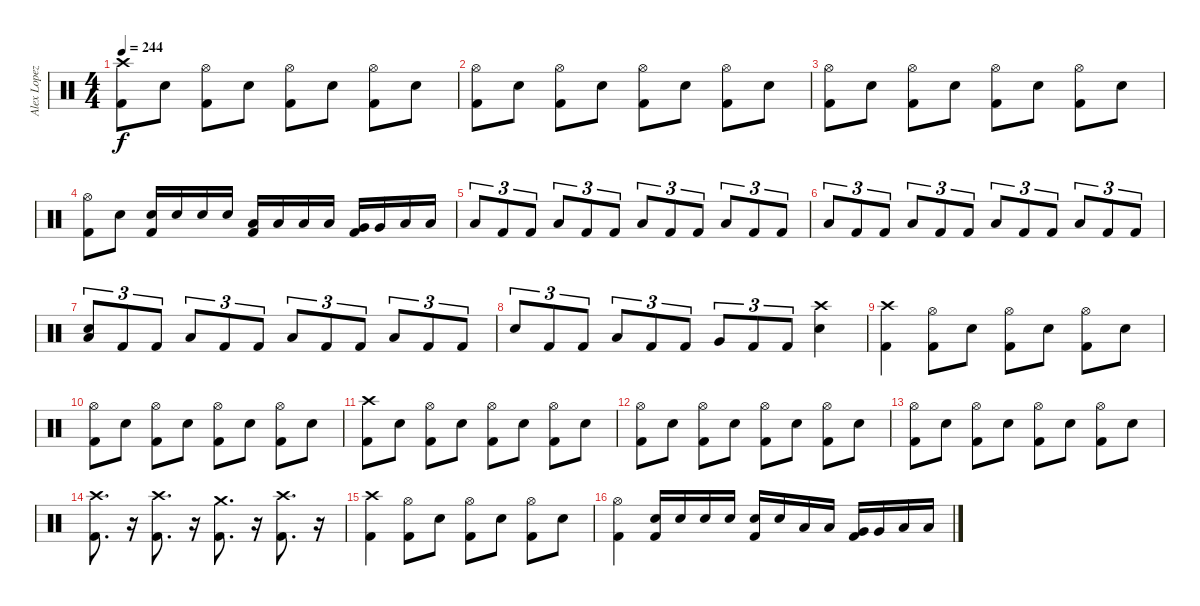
\track ("Alex Lopez" "Alex Lopez") {instrument percussion}
\staff {score}
\articulation defaults
\ts (4 4)
\tempo 244
\clef neutral
\ks c
("Crash high (hit)" "Kick (hit) 2").8{dy f} "Snare (hit) 2".8 ("Hi-Hat (open)" "Kick (hit) 2").8 "Snare (hit) 2".8 ("Hi-Hat (open)" "Kick (hit) 2").8 "Snare (hit) 2".8 ("Hi-Hat (open)" "Kick (hit) 2").8 "Snare (hit) 2".8 |
("Hi-Hat (open)" "Kick (hit) 2").8 "Snare (hit) 2".8 ("Hi-Hat (open)" "Kick (hit) 2").8 "Snare (hit) 2".8 ("Hi-Hat (open)" "Kick (hit) 2").8 "Snare (hit) 2".8 ("Hi-Hat (open)" "Kick (hit) 2").8 "Snare (hit) 2".8 |
("Hi-Hat (open)" "Kick (hit) 2").8 "Snare (hit) 2".8 ("Hi-Hat (open)" "Kick (hit) 2").8 "Snare (hit) 2".8 ("Hi-Hat (open)" "Kick (hit) 2").8 "Snare (hit) 2".8 ("Hi-Hat (open)" "Kick (hit) 2").8 "Snare (hit) 2".8 |
("Hi-Hat (open)" "Kick (hit) 2").8 "Snare (hit) 2".8 ("Snare (hit) 2" "Kick (hit) 2").16 "Snare (hit) 2".16 "Snare (hit) 2".16 "Snare (hit) 2".16 ("Low Tom (hit)" "Kick (hit) 2").16 "Low Tom (hit)".16 "Low Tom (hit)".16 "Low Tom (hit)".16 ("Very Low Tom (hit)" "Kick (hit) 2").16 "Very Low Tom (hit)".16 "Low Floor Tom (hit)".16 "Low Floor Tom (hit)".16 |
"Low Floor Tom (hit)".8{tu (3 2)} "Kick (hit) 2".8{tu (3 2)} "Kick (hit) 2".8{tu (3 2)} "Low Floor Tom (hit)".8{tu (3 2)} "Kick (hit) 2".8{tu (3 2)} "Kick (hit) 2".8{tu (3 2)} "Low Floor Tom (hit)".8{tu (3 2)} "Kick (hit) 2".8{tu (3 2)} "Kick (hit) 2".8{tu (3 2)} "Low Floor Tom (hit)".8{tu (3 2)} "Kick (hit) 2".8{tu (3 2)} "Kick (hit) 2".8{tu (3 2)} |
"Low Floor Tom (hit)".8{tu (3 2)} "Kick (hit) 2".8{tu (3 2)} "Kick (hit) 2".8{tu (3 2)} "Low Floor Tom (hit)".8{tu (3 2)} "Kick (hit) 2".8{tu (3 2)} "Kick (hit) 2".8{tu (3 2)} "Low Floor Tom (hit)".8{tu (3 2)} "Kick (hit) 2".8{tu (3 2)} "Kick (hit) 2".8{tu (3 2)} "Low Floor Tom (hit)".8{tu (3 2)} "Kick (hit) 2".8{tu (3 2)} "Kick (hit) 2".8{tu (3 2)} |
("Snare (hit) 2" "Low Floor Tom (hit)").8{tu (3 2)} "Kick (hit) 2".8{tu (3 2)} "Kick (hit) 2".8{tu (3 2)} "Low Floor Tom (hit)".8{tu (3 2)} "Kick (hit) 2".8{tu (3 2)} "Kick (hit) 2".8{tu (3 2)} "Low Floor Tom (hit)".8{tu (3 2)} "Kick (hit) 2".8{tu (3 2)} "Kick (hit) 2".8{tu (3 2)} "Low Floor Tom (hit)".8{tu (3 2)} "Kick (hit) 2".8{tu (3 2)} "Kick (hit) 2".8{tu (3 2)} |
"Snare (hit) 2".8{tu (3 2)} "Kick (hit) 2".8{tu (3 2)} "Kick (hit) 2".8{tu (3 2)} "Low Tom (hit)".8{tu (3 2)} "Kick (hit) 2".8{tu (3 2)} "Kick (hit) 2".8{tu (3 2)} "Very Low Tom (hit)".8{tu (3 2)} "Kick (hit) 2".8{tu (3 2)} "Kick (hit) 2".8{tu (3 2)} ("Crash high (hit)" "Snare (hit) 2").4 |
("Crash high (hit)" "Kick (hit) 2").4 ("Hi-Hat (open)" "Kick (hit) 2").8 "Snare (hit) 2".8 ("Hi-Hat (open)" "Kick (hit) 2").8 "Snare (hit) 2".8 ("Hi-Hat (open)" "Kick (hit) 2").8 "Snare (hit) 2".8 |
("Hi-Hat (open)" "Kick (hit) 2").8 "Snare (hit) 2".8 ("Hi-Hat (open)" "Kick (hit) 2").8 "Snare (hit) 2".8 ("Hi-Hat (open)" "Kick (hit) 2").8 "Snare (hit) 2".8 ("Hi-Hat (open)" "Kick (hit) 2").8 "Snare (hit) 2".8 |
("Crash high (hit)" "Kick (hit) 2").8 "Snare (hit) 2".8 ("Hi-Hat (open)" "Kick (hit) 2").8 "Snare (hit) 2".8 ("Hi-Hat (open)" "Kick (hit) 2").8 "Snare (hit) 2".8 ("Hi-Hat (open)" "Kick (hit) 2").8 "Snare (hit) 2".8 |
("Hi-Hat (open)" "Kick (hit) 2").8 "Snare (hit) 2".8 ("Hi-Hat (open)" "Kick (hit) 2").8 "Snare (hit) 2".8 ("Hi-Hat (open)" "Kick (hit) 2").8 "Snare (hit) 2".8 ("Hi-Hat (open)" "Kick (hit) 2").8 "Snare (hit) 2".8 |
("Hi-Hat (open)" "Kick (hit) 2").8 "Snare (hit) 2".8 ("Hi-Hat (open)" "Kick (hit) 2").8 "Snare (hit) 2".8 ("Hi-Hat (open)" "Kick (hit) 2").8 "Snare (hit) 2".8 ("Hi-Hat (open)" "Kick (hit) 2").8 "Snare (hit) 2".8 |
("Crash high (hit)" "Kick (hit) 2").8{d} r.16{volume 0} ("Crash high (hit)" "Kick (hit) 2").8{d volume 16} r.16{volume 0} ("Crash medium (hit)" "Kick (hit) 2").8{d volume 16} r.16{volume 0} ("Crash high (hit)" "Kick (hit) 2").8{d volume 16} r.16{volume 16} |
("Crash high (hit)" "Kick (hit) 2").4{volume 16} ("Hi-Hat (open)" "Kick (hit) 2").8 "Snare (hit) 2".8 ("Hi-Hat (open)" "Kick (hit) 2").8 "Snare (hit) 2".8 ("Hi-Hat (open)" "Kick (hit) 2").8 "Snare (hit) 2".8 |
("Hi-Hat (open)" "Kick (hit) 2").4 ("Snare (hit) 2" "Kick (hit) 2").16 "Snare (hit) 2".16 "Snare (hit) 2".16 "Snare (hit) 2".16 ("Snare (hit) 2" "Kick (hit) 2").16 "Snare (hit) 2".16 "Low Tom (hit)".16 "Low Tom (hit)".16 ("Very Low Tom (hit)" "Kick (hit) 2").16 "Very Low Tom (hit)".16 "Low Floor Tom (hit)".16 "Low Floor Tom (hit)".16
